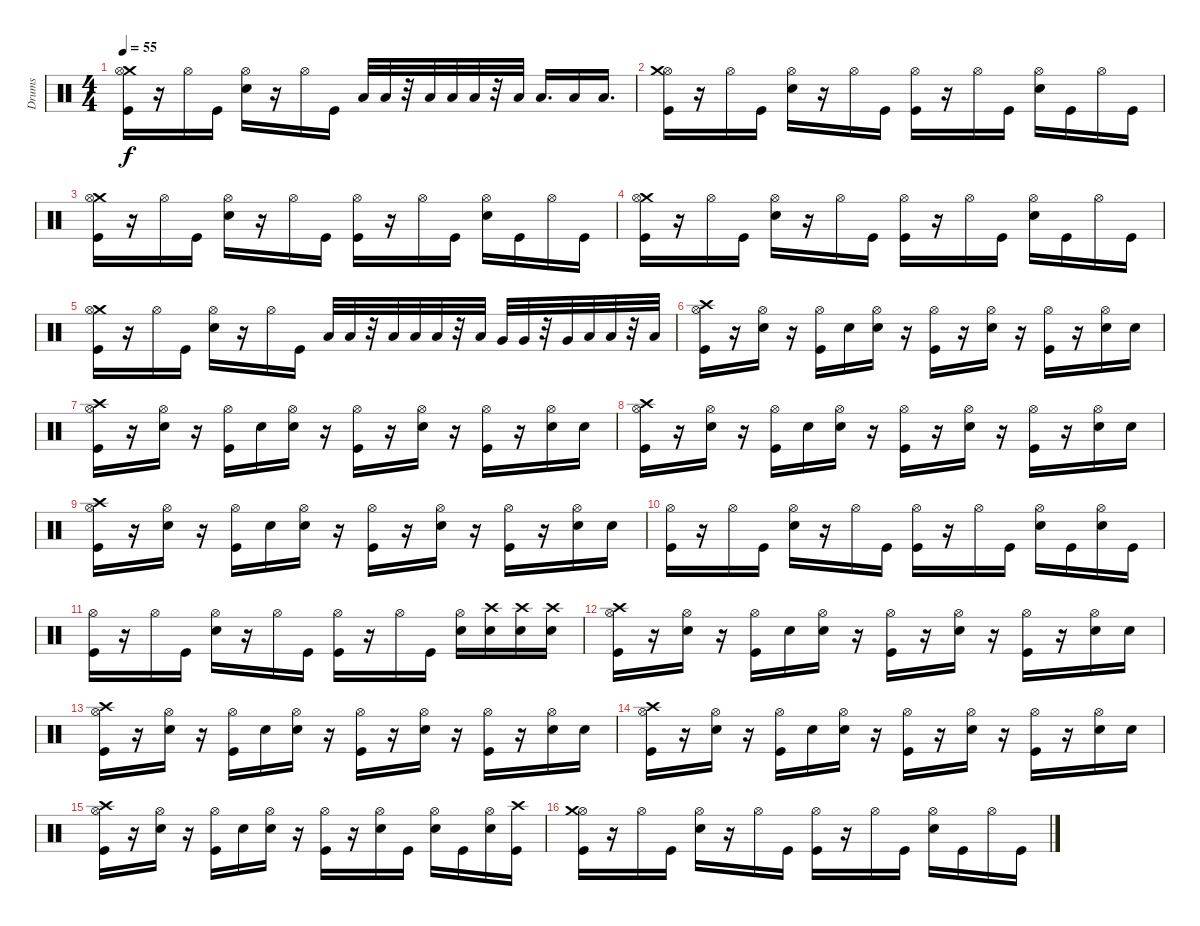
\track ("Drums" "Drums") {instrument percussion}
\staff {score}
\articulation defaults
\ts (4 4)
\tempo 55
\clef neutral
\ks c
("Kick (hit)" "Crash medium (hit)" "Hi-Hat (open)").16{dy f} r.16 "Hi-Hat (open)".16 "Kick (hit)".16 ("Electric Snare (hit)" "Hi-Hat (open)").16 r.16 "Hi-Hat (open)".16 "Kick (hit)".16 "Low Tom (hit)".32 "Low Tom (hit)".32 r.32 "Low Tom (hit)".32 "Low Tom (hit)".32 "Low Tom (hit)".32 r.32 "Low Tom (hit)".32 "Low Tom (hit)".16{d} "Low Tom (hit)".16 "Low Tom (hit)".16{d} |
("Kick (hit)" "Hi-Hat (open)" "Crash medium (hit)").16 r.16 "Hi-Hat (open)".16 "Kick (hit)".16 ("Hi-Hat (open)" "Electric Snare (hit)").16 r.16 "Hi-Hat (open)".16 "Kick (hit)".16 ("Hi-Hat (open)" "Kick (hit)").16 r.16 "Hi-Hat (open)".16 "Kick (hit)".16 ("Electric Snare (hit)" "Hi-Hat (open)").16 "Kick (hit)".16 "Hi-Hat (open)".16 "Kick (hit)".16 |
("Crash medium (hit)" "Hi-Hat (open)" "Kick (hit)").16 r.16 "Hi-Hat (open)".16 "Kick (hit)".16 ("Electric Snare (hit)" "Hi-Hat (open)").16 r.16 "Hi-Hat (open)".16 "Kick (hit)".16 ("Kick (hit)" "Hi-Hat (open)").16 r.16 "Hi-Hat (open)".16 "Kick (hit)".16 ("Hi-Hat (open)" "Electric Snare (hit)").16 "Kick (hit)".16 "Hi-Hat (open)".16 "Kick (hit)".16 |
("Crash medium (hit)" "Hi-Hat (open)" "Kick (hit)").16 r.16 "Hi-Hat (open)".16 "Kick (hit)".16 ("Hi-Hat (open)" "Electric Snare (hit)").16 r.16 "Hi-Hat (open)".16 "Kick (hit)".16 ("Hi-Hat (open)" "Kick (hit)").16 r.16 "Hi-Hat (open)".16 "Kick (hit)".16 ("Electric Snare (hit)" "Hi-Hat (open)").16 "Kick (hit)".16 "Hi-Hat (open)".16 "Kick (hit)".16 |
("Crash medium (hit)" "Kick (hit)" "Hi-Hat (open)").16 r.16 "Hi-Hat (open)".16 "Kick (hit)".16 ("Hi-Hat (open)" "Electric Snare (hit)").16 r.16 "Hi-Hat (open)".16 "Kick (hit)".16 "Low Tom (hit)".32 "Low Tom (hit)".32 r.32 "Low Tom (hit)".32 "Low Tom (hit)".32 "Low Tom (hit)".32 r.32 "Low Tom (hit)".32 "Very Low Tom (hit)".32 "Very Low Tom (hit)".32 r.32 "Very Low Tom (hit)".32 "Low Floor Tom (hit)".32 "Low Floor Tom (hit)".32 r.32 "Low Floor Tom (hit)".32 |
("Crash high (hit)" "Hi-Hat (open)" "Kick (hit)").16 r.16 ("Hi-Hat (open)" "Electric Snare (hit)").16 r.16 ("Hi-Hat (open)" "Kick (hit)").16 "Electric Snare (hit)".16 ("Electric Snare (hit)" "Hi-Hat (open)").16 r.16 ("Kick (hit)" "Hi-Hat (open)").16 r.16 ("Hi-Hat (open)" "Electric Snare (hit)").16 r.16 ("Hi-Hat (open)" "Kick (hit)").16 r.16 ("Hi-Hat (open)" "Electric Snare (hit)").16 "Electric Snare (hit)".16 |
("Crash high (hit)" "Hi-Hat (open)" "Kick (hit)").16 r.16 ("Hi-Hat (open)" "Electric Snare (hit)").16 r.16 ("Kick (hit)" "Hi-Hat (open)").16 "Electric Snare (hit)".16 ("Hi-Hat (open)" "Electric Snare (hit)").16 r.16 ("Kick (hit)" "Hi-Hat (open)").16 r.16 ("Electric Snare (hit)" "Hi-Hat (open)").16 r.16 ("Kick (hit)" "Hi-Hat (open)").16 r.16 ("Electric Snare (hit)" "Hi-Hat (open)").16 "Electric Snare (hit)".16 |
("Hi-Hat (open)" "Kick (hit)" "Crash high (hit)").16 r.16 ("Electric Snare (hit)" "Hi-Hat (open)").16 r.16 ("Hi-Hat (open)" "Kick (hit)").16 "Electric Snare (hit)".16 ("Hi-Hat (open)" "Electric Snare (hit)").16 r.16 ("Hi-Hat (open)" "Kick (hit)").16 r.16 ("Hi-Hat (open)" "Electric Snare (hit)").16 r.16 ("Hi-Hat (open)" "Kick (hit)").16 r.16 ("Electric Snare (hit)" "Hi-Hat (open)").16 "Electric Snare (hit)".16 |
("Kick (hit)" "Crash high (hit)" "Hi-Hat (open)").16 r.16 ("Electric Snare (hit)" "Hi-Hat (open)").16 r.16 ("Kick (hit)" "Hi-Hat (open)").16 "Electric Snare (hit)".16 ("Hi-Hat (open)" "Electric Snare (hit)").16 r.16 ("Hi-Hat (open)" "Kick (hit)").16 r.16 ("Electric Snare (hit)" "Hi-Hat (open)").16 r.16 ("Hi-Hat (open)" "Kick (hit)").16 r.16 ("Hi-Hat (open)" "Electric Snare (hit)").16 "Electric Snare (hit)".16 |
("Hi-Hat (open)" "Kick (hit)").16 r.16 "Hi-Hat (open)".16 "Kick (hit)".16 ("Hi-Hat (open)" "Electric Snare (hit)").16 r.16 "Hi-Hat (open)".16 "Kick (hit)".16 ("Hi-Hat (open)" "Kick (hit)").16 r.16 "Hi-Hat (open)".16 "Kick (hit)".16 ("Hi-Hat (open)" "Electric Snare (hit)").16 "Kick (hit)".16 ("Hi-Hat (open)" "Electric Snare (hit)").16 "Kick (hit)".16 |
("Hi-Hat (open)" "Kick (hit)").16 r.16 "Hi-Hat (open)".16 "Kick (hit)".16 ("Hi-Hat (open)" "Electric Snare (hit)").16 r.16 "Hi-Hat (open)".16 "Kick (hit)".16 ("Hi-Hat (open)" "Kick (hit)").16 r.16 "Hi-Hat (open)".16 "Kick (hit)".16 ("Hi-Hat (open)" "Electric Snare (hit)").16 ("Crash high (hit)" "Electric Snare (hit)").16 ("Crash high (hit)" "Electric Snare (hit)").16 ("Crash high (hit)" "Electric Snare (hit)").16 |
("Crash high (hit)" "Hi-Hat (open)" "Kick (hit)").16 r.16 ("Hi-Hat (open)" "Electric Snare (hit)").16 r.16 ("Hi-Hat (open)" "Kick (hit)").16 "Electric Snare (hit)".16 ("Electric Snare (hit)" "Hi-Hat (open)").16 r.16 ("Kick (hit)" "Hi-Hat (open)").16 r.16 ("Hi-Hat (open)" "Electric Snare (hit)").16 r.16 ("Hi-Hat (open)" "Kick (hit)").16 r.16 ("Hi-Hat (open)" "Electric Snare (hit)").16 "Electric Snare (hit)".16 |
("Crash high (hit)" "Hi-Hat (open)" "Kick (hit)").16 r.16 ("Hi-Hat (open)" "Electric Snare (hit)").16 r.16 ("Kick (hit)" "Hi-Hat (open)").16 "Electric Snare (hit)".16 ("Hi-Hat (open)" "Electric Snare (hit)").16 r.16 ("Kick (hit)" "Hi-Hat (open)").16 r.16 ("Electric Snare (hit)" "Hi-Hat (open)").16 r.16 ("Kick (hit)" "Hi-Hat (open)").16 r.16 ("Electric Snare (hit)" "Hi-Hat (open)").16 "Electric Snare (hit)".16 |
("Hi-Hat (open)" "Kick (hit)" "Crash high (hit)").16 r.16 ("Electric Snare (hit)" "Hi-Hat (open)").16 r.16 ("Hi-Hat (open)" "Kick (hit)").16 "Electric Snare (hit)".16 ("Hi-Hat (open)" "Electric Snare (hit)").16 r.16 ("Hi-Hat (open)" "Kick (hit)").16 r.16 ("Hi-Hat (open)" "Electric Snare (hit)").16 r.16 ("Hi-Hat (open)" "Kick (hit)").16 r.16 ("Electric Snare (hit)" "Hi-Hat (open)").16 "Electric Snare (hit)".16 |
("Kick (hit)" "Crash high (hit)" "Hi-Hat (open)").16 r.16 ("Electric Snare (hit)" "Hi-Hat (open)").16 r.16 ("Kick (hit)" "Hi-Hat (open)").16 "Electric Snare (hit)".16 ("Hi-Hat (open)" "Electric Snare (hit)").16 r.16 ("Hi-Hat (open)" "Kick (hit)").16 r.16 ("Electric Snare (hit)" "Hi-Hat (open)").16 "Kick (hit)".16 ("Electric Snare (hit)" "Hi-Hat (open)").16 "Kick (hit)".16 ("Hi-Hat (open)" "Electric Snare (hit)").16 ("Crash high (hit)" "Kick (hit)").16 |
("Kick (hit)" "Hi-Hat (open)" "Crash medium (hit)").16 r.16 "Hi-Hat (open)".16 "Kick (hit)".16 ("Hi-Hat (open)" "Electric Snare (hit)").16 r.16 "Hi-Hat (open)".16 "Kick (hit)".16 ("Kick (hit)" "Hi-Hat (open)").16 r.16 "Hi-Hat (open)".16 "Kick (hit)".16 ("Electric Snare (hit)" "Hi-Hat (open)").16 "Kick (hit)".16 "Hi-Hat (open)".16 "Kick (hit)".16
